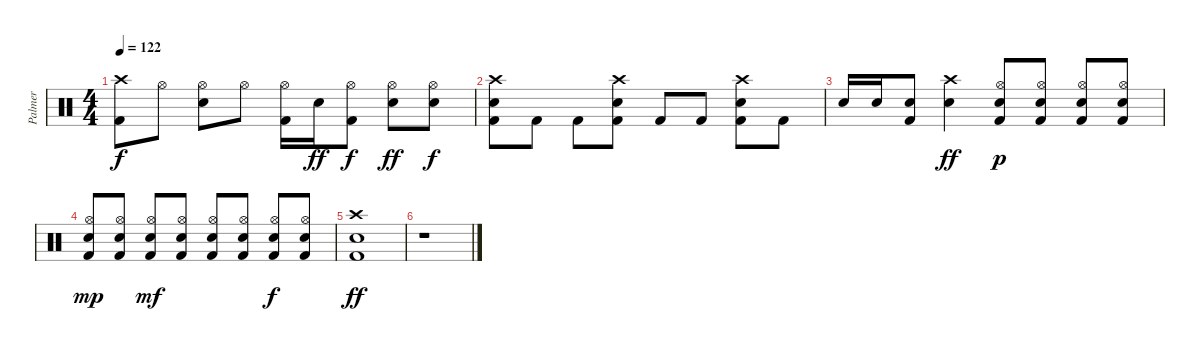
\track ("Palmer" "Palmer") {instrument percussion}
\staff {score}
\articulation defaults
\ts (4 4)
\tempo 122
\clef neutral
\ks c
("Crash high (hit)" "Kick (hit) 2").8{dy f} "Hi-Hat (open)".8 ("Hi-Hat (open)" "Electric Snare (hit)").8 "Hi-Hat (open)".8 ("Hi-Hat (open)" "Kick (hit) 2").16 "Electric Snare (hit)".16{dy ff} ("Hi-Hat (open)" "Kick (hit) 2").8{dy f} ("Hi-Hat (open)" "Electric Snare (hit)").8{dy ff} ("Hi-Hat (open)" "Electric Snare (hit)").8{dy f} |
("Crash high (hit)" "Electric Snare (hit)" "Kick (hit) 2").8 "Kick (hit) 2".8 "Kick (hit) 2".8 ("Crash high (hit)" "Electric Snare (hit)" "Kick (hit) 2").8 "Kick (hit) 2".8 "Kick (hit) 2".8 ("Crash high (hit)" "Electric Snare (hit)" "Kick (hit) 2").8 "Kick (hit) 2".8 |
"Electric Snare (hit)".16 "Electric Snare (hit)".16 ("Electric Snare (hit)" "Kick (hit) 2").8 ("Crash high (hit)" "Electric Snare (hit)").4{dy ff} ("Hi-Hat (open)" "Electric Snare (hit)" "Kick (hit) 2").8{dy p} ("Hi-Hat (open)" "Electric Snare (hit)" "Kick (hit) 2").8 ("Hi-Hat (open)" "Electric Snare (hit)" "Kick (hit) 2").8 ("Hi-Hat (open)" "Electric Snare (hit)" "Kick (hit) 2").8 |
("Hi-Hat (open)" "Electric Snare (hit)" "Kick (hit) 2").8{dy mp} ("Hi-Hat (open)" "Electric Snare (hit)" "Kick (hit) 2").8 ("Hi-Hat (open)" "Electric Snare (hit)" "Kick (hit) 2").8{dy mf} ("Hi-Hat (open)" "Electric Snare (hit)" "Kick (hit) 2").8 ("Hi-Hat (open)" "Electric Snare (hit)" "Kick (hit) 2").8 ("Hi-Hat (open)" "Electric Snare (hit)" "Kick (hit) 2").8 ("Hi-Hat (open)" "Electric Snare (hit)" "Kick (hit) 2").8{dy f} ("Hi-Hat (open)" "Electric Snare (hit)" "Kick (hit) 2").8 |
("Crash high (hit)" "Electric Snare (hit)" "Kick (hit) 2").1{dy ff} |
r.1
